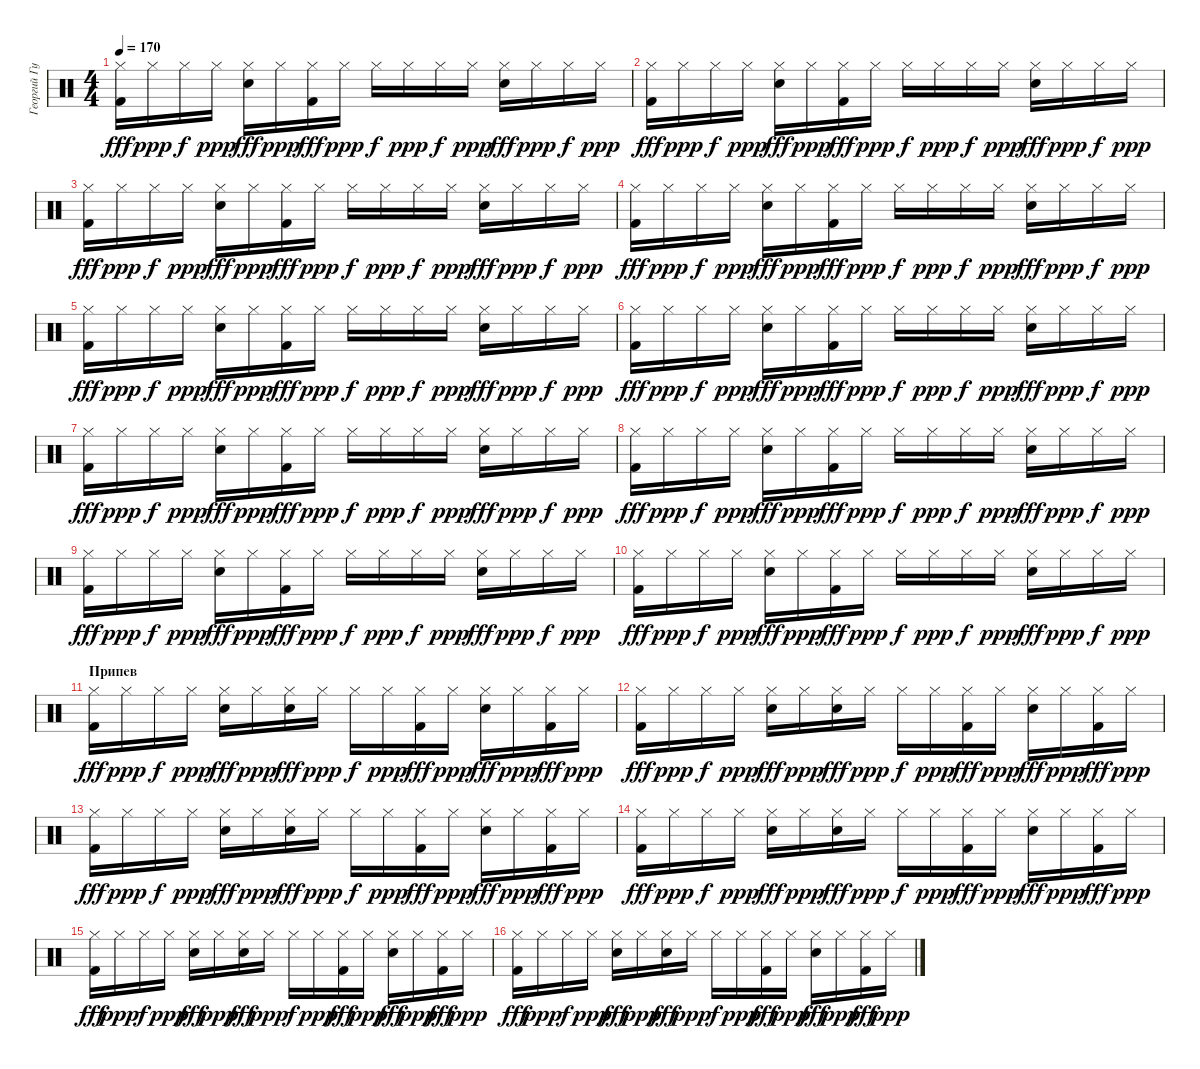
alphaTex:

\track ("Георгий Гурьянов" "Георгий Гу") {instrument percussion}
\staff {score}
\articulation defaults
\ts (4 4)
\tempo 170
\clef neutral
\ks c
("Hi-Hat (closed)" "Kick (hit) 2").16{dy fff} "Hi-Hat (closed)".16{dy ppp} "Hi-Hat (closed)".16{dy f} "Hi-Hat (closed)".16{dy ppp} ("Hi-Hat (closed)" "Electric Snare (hit)").16{dy fff} "Hi-Hat (closed)".16{dy ppp} ("Hi-Hat (closed)" "Kick (hit) 2").16{dy fff} "Hi-Hat (closed)".16{dy ppp} "Hi-Hat (closed)".16{dy f} "Hi-Hat (closed)".16{dy ppp} "Hi-Hat (closed)".16{dy f} "Hi-Hat (closed)".16{dy ppp} ("Hi-Hat (closed)" "Electric Snare (hit)").16{dy fff} "Hi-Hat (closed)".16{dy ppp} "Hi-Hat (closed)".16{dy f} "Hi-Hat (closed)".16{dy ppp} |
("Hi-Hat (closed)" "Kick (hit) 2").16{dy fff} "Hi-Hat (closed)".16{dy ppp} "Hi-Hat (closed)".16{dy f} "Hi-Hat (closed)".16{dy ppp} ("Hi-Hat (closed)" "Electric Snare (hit)").16{dy fff} "Hi-Hat (closed)".16{dy ppp} ("Hi-Hat (closed)" "Kick (hit) 2").16{dy fff} "Hi-Hat (closed)".16{dy ppp} "Hi-Hat (closed)".16{dy f} "Hi-Hat (closed)".16{dy ppp} "Hi-Hat (closed)".16{dy f} "Hi-Hat (closed)".16{dy ppp} ("Hi-Hat (closed)" "Electric Snare (hit)").16{dy fff} "Hi-Hat (closed)".16{dy ppp} "Hi-Hat (closed)".16{dy f} "Hi-Hat (closed)".16{dy ppp} |
("Hi-Hat (closed)" "Kick (hit) 2").16{dy fff} "Hi-Hat (closed)".16{dy ppp} "Hi-Hat (closed)".16{dy f} "Hi-Hat (closed)".16{dy ppp} ("Hi-Hat (closed)" "Electric Snare (hit)").16{dy fff} "Hi-Hat (closed)".16{dy ppp} ("Hi-Hat (closed)" "Kick (hit) 2").16{dy fff} "Hi-Hat (closed)".16{dy ppp} "Hi-Hat (closed)".16{dy f} "Hi-Hat (closed)".16{dy ppp} "Hi-Hat (closed)".16{dy f} "Hi-Hat (closed)".16{dy ppp} ("Hi-Hat (closed)" "Electric Snare (hit)").16{dy fff} "Hi-Hat (closed)".16{dy ppp} "Hi-Hat (closed)".16{dy f} "Hi-Hat (closed)".16{dy ppp} |
("Hi-Hat (closed)" "Kick (hit) 2").16{dy fff} "Hi-Hat (closed)".16{dy ppp} "Hi-Hat (closed)".16{dy f} "Hi-Hat (closed)".16{dy ppp} ("Hi-Hat (closed)" "Electric Snare (hit)").16{dy fff} "Hi-Hat (closed)".16{dy ppp} ("Hi-Hat (closed)" "Kick (hit) 2").16{dy fff} "Hi-Hat (closed)".16{dy ppp} "Hi-Hat (closed)".16{dy f} "Hi-Hat (closed)".16{dy ppp} "Hi-Hat (closed)".16{dy f} "Hi-Hat (closed)".16{dy ppp} ("Hi-Hat (closed)" "Electric Snare (hit)").16{dy fff} "Hi-Hat (closed)".16{dy ppp} "Hi-Hat (closed)".16{dy f} "Hi-Hat (closed)".16{dy ppp} |
("Hi-Hat (closed)" "Kick (hit) 2").16{dy fff} "Hi-Hat (closed)".16{dy ppp} "Hi-Hat (closed)".16{dy f} "Hi-Hat (closed)".16{dy ppp} ("Hi-Hat (closed)" "Electric Snare (hit)").16{dy fff} "Hi-Hat (closed)".16{dy ppp} ("Hi-Hat (closed)" "Kick (hit) 2").16{dy fff} "Hi-Hat (closed)".16{dy ppp} "Hi-Hat (closed)".16{dy f} "Hi-Hat (closed)".16{dy ppp} "Hi-Hat (closed)".16{dy f} "Hi-Hat (closed)".16{dy ppp} ("Hi-Hat (closed)" "Electric Snare (hit)").16{dy fff} "Hi-Hat (closed)".16{dy ppp} "Hi-Hat (closed)".16{dy f} "Hi-Hat (closed)".16{dy ppp} |
("Hi-Hat (closed)" "Kick (hit) 2").16{dy fff} "Hi-Hat (closed)".16{dy ppp} "Hi-Hat (closed)".16{dy f} "Hi-Hat (closed)".16{dy ppp} ("Hi-Hat (closed)" "Electric Snare (hit)").16{dy fff} "Hi-Hat (closed)".16{dy ppp} ("Hi-Hat (closed)" "Kick (hit) 2").16{dy fff} "Hi-Hat (closed)".16{dy ppp} "Hi-Hat (closed)".16{dy f} "Hi-Hat (closed)".16{dy ppp} "Hi-Hat (closed)".16{dy f} "Hi-Hat (closed)".16{dy ppp} ("Hi-Hat (closed)" "Electric Snare (hit)").16{dy fff} "Hi-Hat (closed)".16{dy ppp} "Hi-Hat (closed)".16{dy f} "Hi-Hat (closed)".16{dy ppp} |
("Hi-Hat (closed)" "Kick (hit) 2").16{dy fff} "Hi-Hat (closed)".16{dy ppp} "Hi-Hat (closed)".16{dy f} "Hi-Hat (closed)".16{dy ppp} ("Hi-Hat (closed)" "Electric Snare (hit)").16{dy fff} "Hi-Hat (closed)".16{dy ppp} ("Hi-Hat (closed)" "Kick (hit) 2").16{dy fff} "Hi-Hat (closed)".16{dy ppp} "Hi-Hat (closed)".16{dy f} "Hi-Hat (closed)".16{dy ppp} "Hi-Hat (closed)".16{dy f} "Hi-Hat (closed)".16{dy ppp} ("Hi-Hat (closed)" "Electric Snare (hit)").16{dy fff} "Hi-Hat (closed)".16{dy ppp} "Hi-Hat (closed)".16{dy f} "Hi-Hat (closed)".16{dy ppp} |
("Hi-Hat (closed)" "Kick (hit) 2").16{dy fff} "Hi-Hat (closed)".16{dy ppp} "Hi-Hat (closed)".16{dy f} "Hi-Hat (closed)".16{dy ppp} ("Hi-Hat (closed)" "Electric Snare (hit)").16{dy fff} "Hi-Hat (closed)".16{dy ppp} ("Hi-Hat (closed)" "Kick (hit) 2").16{dy fff} "Hi-Hat (closed)".16{dy ppp} "Hi-Hat (closed)".16{dy f} "Hi-Hat (closed)".16{dy ppp} "Hi-Hat (closed)".16{dy f} "Hi-Hat (closed)".16{dy ppp} ("Hi-Hat (closed)" "Electric Snare (hit)").16{dy fff} "Hi-Hat (closed)".16{dy ppp} "Hi-Hat (closed)".16{dy f} "Hi-Hat (closed)".16{dy ppp} |
("Hi-Hat (closed)" "Kick (hit) 2").16{dy fff} "Hi-Hat (closed)".16{dy ppp} "Hi-Hat (closed)".16{dy f} "Hi-Hat (closed)".16{dy ppp} ("Hi-Hat (closed)" "Electric Snare (hit)").16{dy fff} "Hi-Hat (closed)".16{dy ppp} ("Hi-Hat (closed)" "Kick (hit) 2").16{dy fff} "Hi-Hat (closed)".16{dy ppp} "Hi-Hat (closed)".16{dy f} "Hi-Hat (closed)".16{dy ppp} "Hi-Hat (closed)".16{dy f} "Hi-Hat (closed)".16{dy ppp} ("Hi-Hat (closed)" "Electric Snare (hit)").16{dy fff} "Hi-Hat (closed)".16{dy ppp} "Hi-Hat (closed)".16{dy f} "Hi-Hat (closed)".16{dy ppp} |
("Hi-Hat (closed)" "Kick (hit) 2").16{dy fff} "Hi-Hat (closed)".16{dy ppp} "Hi-Hat (closed)".16{dy f} "Hi-Hat (closed)".16{dy ppp} ("Hi-Hat (closed)" "Electric Snare (hit)").16{dy fff} "Hi-Hat (closed)".16{dy ppp} ("Hi-Hat (closed)" "Kick (hit) 2").16{dy fff} "Hi-Hat (closed)".16{dy ppp} "Hi-Hat (closed)".16{dy f} "Hi-Hat (closed)".16{dy ppp} "Hi-Hat (closed)".16{dy f} "Hi-Hat (closed)".16{dy ppp} ("Hi-Hat (closed)" "Electric Snare (hit)").16{dy fff} "Hi-Hat (closed)".16{dy ppp} "Hi-Hat (closed)".16{dy f} "Hi-Hat (closed)".16{dy ppp} |
\section ("" "Припев")
("Hi-Hat (closed)" "Kick (hit) 2").16{dy fff} "Hi-Hat (closed)".16{dy ppp} "Hi-Hat (closed)".16{dy f} "Hi-Hat (closed)".16{dy ppp} ("Hi-Hat (closed)" "Electric Snare (hit)").16{dy fff} "Hi-Hat (closed)".16{dy ppp} ("Hi-Hat (closed)" "Electric Snare (hit)").16{dy fff} "Hi-Hat (closed)".16{dy ppp} "Hi-Hat (closed)".16{dy f} "Hi-Hat (closed)".16{dy ppp} ("Hi-Hat (closed)" "Kick (hit) 2").16{dy fff} "Hi-Hat (closed)".16{dy ppp} ("Hi-Hat (closed)" "Electric Snare (hit)").16{dy fff} "Hi-Hat (closed)".16{dy ppp} ("Hi-Hat (closed)" "Kick (hit) 2").16{dy fff} "Hi-Hat (closed)".16{dy ppp} |
("Hi-Hat (closed)" "Kick (hit) 2").16{dy fff} "Hi-Hat (closed)".16{dy ppp} "Hi-Hat (closed)".16{dy f} "Hi-Hat (closed)".16{dy ppp} ("Hi-Hat (closed)" "Electric Snare (hit)").16{dy fff} "Hi-Hat (closed)".16{dy ppp} ("Hi-Hat (closed)" "Electric Snare (hit)").16{dy fff} "Hi-Hat (closed)".16{dy ppp} "Hi-Hat (closed)".16{dy f} "Hi-Hat (closed)".16{dy ppp} ("Hi-Hat (closed)" "Kick (hit) 2").16{dy fff} "Hi-Hat (closed)".16{dy ppp} ("Hi-Hat (closed)" "Electric Snare (hit)").16{dy fff} "Hi-Hat (closed)".16{dy ppp} ("Hi-Hat (closed)" "Kick (hit) 2").16{dy fff} "Hi-Hat (closed)".16{dy ppp} |
("Hi-Hat (closed)" "Kick (hit) 2").16{dy fff} "Hi-Hat (closed)".16{dy ppp} "Hi-Hat (closed)".16{dy f} "Hi-Hat (closed)".16{dy ppp} ("Hi-Hat (closed)" "Electric Snare (hit)").16{dy fff} "Hi-Hat (closed)".16{dy ppp} ("Hi-Hat (closed)" "Electric Snare (hit)").16{dy fff} "Hi-Hat (closed)".16{dy ppp} "Hi-Hat (closed)".16{dy f} "Hi-Hat (closed)".16{dy ppp} ("Hi-Hat (closed)" "Kick (hit) 2").16{dy fff} "Hi-Hat (closed)".16{dy ppp} ("Hi-Hat (closed)" "Electric Snare (hit)").16{dy fff} "Hi-Hat (closed)".16{dy ppp} ("Hi-Hat (closed)" "Kick (hit) 2").16{dy fff} "Hi-Hat (closed)".16{dy ppp} |
("Hi-Hat (closed)" "Kick (hit) 2").16{dy fff} "Hi-Hat (closed)".16{dy ppp} "Hi-Hat (closed)".16{dy f} "Hi-Hat (closed)".16{dy ppp} ("Hi-Hat (closed)" "Electric Snare (hit)").16{dy fff} "Hi-Hat (closed)".16{dy ppp} ("Hi-Hat (closed)" "Electric Snare (hit)").16{dy fff} "Hi-Hat (closed)".16{dy ppp} "Hi-Hat (closed)".16{dy f} "Hi-Hat (closed)".16{dy ppp} ("Hi-Hat (closed)" "Kick (hit) 2").16{dy fff} "Hi-Hat (closed)".16{dy ppp} ("Hi-Hat (closed)" "Electric Snare (hit)").16{dy fff} "Hi-Hat (closed)".16{dy ppp} ("Hi-Hat (closed)" "Kick (hit) 2").16{dy fff} "Hi-Hat (closed)".16{dy ppp} |
("Hi-Hat (closed)" "Kick (hit) 2").16{dy fff} "Hi-Hat (closed)".16{dy ppp} "Hi-Hat (closed)".16{dy f} "Hi-Hat (closed)".16{dy ppp} ("Hi-Hat (closed)" "Electric Snare (hit)").16{dy fff} "Hi-Hat (closed)".16{dy ppp} ("Hi-Hat (closed)" "Electric Snare (hit)").16{dy fff} "Hi-Hat (closed)".16{dy ppp} "Hi-Hat (closed)".16{dy f} "Hi-Hat (closed)".16{dy ppp} ("Hi-Hat (closed)" "Kick (hit) 2").16{dy fff} "Hi-Hat (closed)".16{dy ppp} ("Hi-Hat (closed)" "Electric Snare (hit)").16{dy fff} "Hi-Hat (closed)".16{dy ppp} ("Hi-Hat (closed)" "Kick (hit) 2").16{dy fff} "Hi-Hat (closed)".16{dy ppp} |
("Hi-Hat (closed)" "Kick (hit) 2").16{dy fff} "Hi-Hat (closed)".16{dy ppp} "Hi-Hat (closed)".16{dy f} "Hi-Hat (closed)".16{dy ppp} ("Hi-Hat (closed)" "Electric Snare (hit)").16{dy fff} "Hi-Hat (closed)".16{dy ppp} ("Hi-Hat (closed)" "Electric Snare (hit)").16{dy fff} "Hi-Hat (closed)".16{dy ppp} "Hi-Hat (closed)".16{dy f} "Hi-Hat (closed)".16{dy ppp} ("Hi-Hat (closed)" "Kick (hit) 2").16{dy fff} "Hi-Hat (closed)".16{dy ppp} ("Hi-Hat (closed)" "Electric Snare (hit)").16{dy fff} "Hi-Hat (closed)".16{dy ppp} ("Hi-Hat (closed)" "Kick (hit) 2").16{dy fff} "Hi-Hat (closed)".16{dy ppp}
